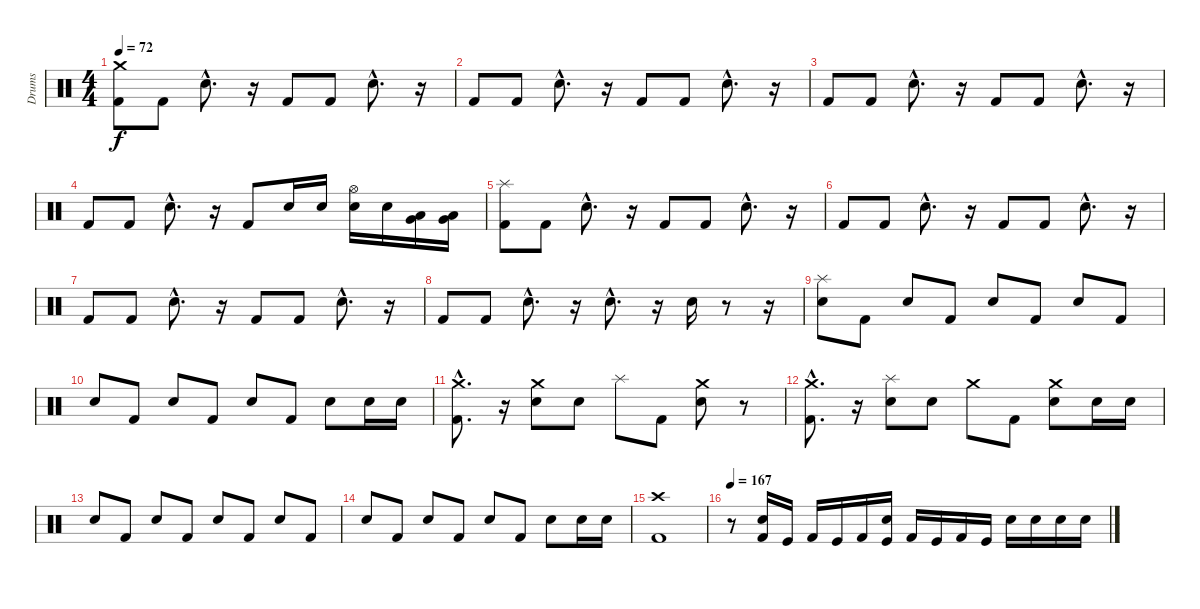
\track ("Drums" "Drums") {instrument percussion}
\staff {score}
\articulation defaults
\ts (4 4)
\tempo 72
\clef neutral
\ks c
("Crash medium (hit)" "Kick (hit) 2").8{dy f} "Kick (hit) 2".8 "Snare (hit) 2"{hac}.8{d} r.16 "Kick (hit) 2".8 "Kick (hit) 2".8 "Snare (hit) 2"{hac}.8{d} r.16 |
"Kick (hit) 2".8 "Kick (hit) 2".8 "Snare (hit) 2"{hac}.8{d} r.16 "Kick (hit) 2".8 "Kick (hit) 2".8 "Snare (hit) 2"{hac}.8{d} r.16 |
"Kick (hit) 2".8 "Kick (hit) 2".8 "Snare (hit) 2"{hac}.8{d} r.16 "Kick (hit) 2".8 "Kick (hit) 2".8 "Snare (hit) 2"{hac}.8{d} r.16 |
"Kick (hit) 2".8 "Kick (hit) 2".8 "Snare (hit) 2"{hac}.8{d} r.16 "Kick (hit) 2".8 "Snare (hit) 2".16 "Snare (hit) 2".16 ("Hi-Hat (open)" "Snare (hit) 2").16 "Snare (hit) 2".16 ("Very Low Tom (hit)" "Low Tom (hit)").16 ("Low Floor Tom (hit)" "Very Low Tom (hit)").16 |
("Kick (hit) 2" "Splash (hit)").8 "Kick (hit) 2".8 "Snare (hit) 2"{hac}.8{d} r.16 "Kick (hit) 2".8 "Kick (hit) 2".8 "Snare (hit) 2"{hac}.8{d} r.16 |
"Kick (hit) 2".8 "Kick (hit) 2".8 "Snare (hit) 2"{hac}.8{d} r.16 "Kick (hit) 2".8 "Kick (hit) 2".8 "Snare (hit) 2"{hac}.8{d} r.16 |
"Kick (hit) 2".8 "Kick (hit) 2".8 "Snare (hit) 2"{hac}.8{d} r.16 "Kick (hit) 2".8 "Kick (hit) 2".8 "Snare (hit) 2"{hac}.8{d} r.16 |
"Kick (hit) 2".8 "Kick (hit) 2".8 "Snare (hit) 2"{hac}.8{d} r.16 "Snare (hit) 2"{hac}.8{d} r.16 "Snare (hit) 2".16 r.8 r.16 |
("Splash (hit)" "Snare (hit) 2").8 "Kick (hit) 2".8 "Snare (hit) 2".8 "Kick (hit) 2".8 "Snare (hit) 2".8 "Kick (hit) 2".8 "Snare (hit) 2".8 "Kick (hit) 2".8 |
"Snare (hit) 2".8 "Kick (hit) 2".8 "Snare (hit) 2".8 "Kick (hit) 2".8 "Snare (hit) 2".8 "Kick (hit) 2".8 "Snare (hit) 2".8 "Snare (hit) 2".16 "Snare (hit) 2".16 |
("Kick (hit) 2"{hac} "Crash medium (hit)"{hac}).8{d} r.16 ("Snare (hit) 2" "Crash medium (hit)").8 "Snare (hit) 2".8 "Splash (hit)".8 "Kick (hit) 2".8 ("Snare (hit) 2" "Crash medium (hit)").8 r.8 |
("Kick (hit) 2"{hac} "Crash medium (hit)"{hac}).8{d} r.16 ("Snare (hit) 2" "Splash (hit)").8 "Snare (hit) 2".8 "Crash medium (hit)".8 "Kick (hit) 2".8 ("Snare (hit) 2" "Crash medium (hit)").8 "Snare (hit) 2".16 "Snare (hit) 2".16 |
"Snare (hit) 2".8 "Kick (hit) 2".8 "Snare (hit) 2".8 "Kick (hit) 2".8 "Snare (hit) 2".8 "Kick (hit) 2".8 "Snare (hit) 2".8 "Kick (hit) 2".8 |
"Snare (hit) 2".8 "Kick (hit) 2".8 "Snare (hit) 2".8 "Kick (hit) 2".8 "Snare (hit) 2".8 "Kick (hit) 2".8 "Snare (hit) 2".8 "Snare (hit) 2".16 "Snare (hit) 2".16 |
("Crash high (hit)" "Kick (hit) 2").1 |
\tempo 167
r.8 ("Snare (hit) 2" "Kick (hit) 2").16 "Kick (hit)".16 "Kick (hit) 2".16 "Kick (hit)".16 "Kick (hit) 2".16 ("Snare (hit) 2" "Kick (hit)").16 "Kick (hit) 2".16 "Kick (hit)".16 "Kick (hit) 2".16 "Kick (hit)".16 "Snare (hit) 2".16 "Snare (hit) 2".16 "Snare (hit) 2".16 "Snare (hit) 2".16
